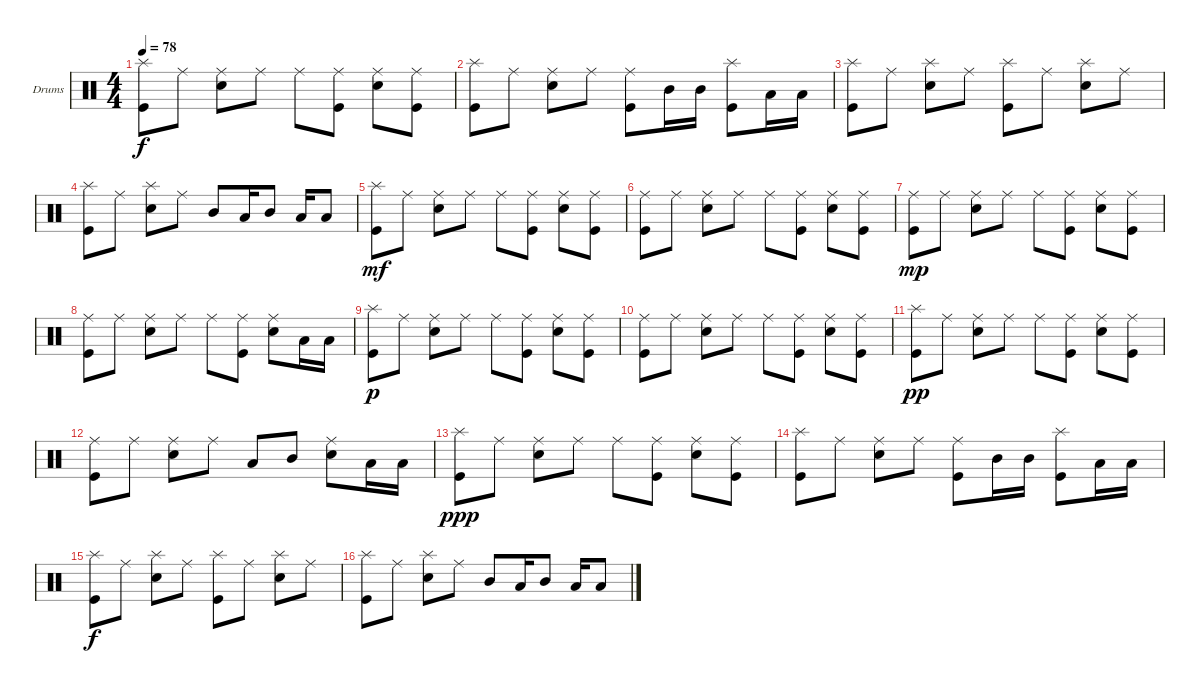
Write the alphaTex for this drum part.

\bracketExtendMode groupsimilarinstruments
\firstSystemTrackNameOrientation horizontal
\otherSystemsTrackNameOrientation horizontal
\track ("Drumkit" "Drums") {instrument percussion}
\staff {score}
\articulation defaults
\ts (4 4)
\tempo 78
\clef neutral
\ks c
("Splash (hit)" "Kick (hit)").8{dy f} "Ride (middle)".8 ("Ride (middle)" "Snare (hit) 2").8 "Ride (middle)".8 "Ride (middle)".8 ("Ride (middle)" "Kick (hit)").8 ("Ride (middle)" "Snare (hit) 2").8 ("Ride (middle)" "Kick (hit)").8 |
("Splash (hit)" "Kick (hit)").8 "Ride (middle)".8 ("Ride (middle)" "Snare (hit) 2").8 "Ride (middle)".8 ("Ride (middle)" "Kick (hit)").8 "Mid Tom (hit)".16 "Mid Tom (hit)".16 ("Splash (hit)" "Kick (hit)").8 "Low Tom (hit)".16 "Low Tom (hit)".16 |
("Splash (hit)" "Kick (hit)").8 "Ride (middle)".8 ("Splash (hit)" "Snare (hit) 2").8 "Ride (middle)".8 ("Splash (hit)" "Kick (hit)").8 "Ride (middle)".8 ("Splash (hit)" "Snare (hit) 2").8 "Ride (middle)".8 |
("Splash (hit)" "Kick (hit)").8 "Ride (middle)".8 ("Splash (hit)" "Snare (hit) 2").8 "Ride (middle)".8 "Mid Tom (hit)".8 "Low Tom (hit)".16 "Mid Tom (hit)".8 "Low Tom (hit)".16 "Low Tom (hit)".8 |
("Splash (hit)" "Kick (hit)").8{dy mf} "Ride (middle)".8 ("Ride (middle)" "Snare (hit) 2").8 "Ride (middle)".8 "Ride (middle)".8 ("Ride (middle)" "Kick (hit)").8 ("Ride (middle)" "Snare (hit) 2").8 ("Ride (middle)" "Kick (hit)").8 |
("Ride (middle)" "Kick (hit)").8 "Ride (middle)".8 ("Ride (middle)" "Snare (hit) 2").8 "Ride (middle)".8 "Ride (middle)".8 ("Ride (middle)" "Kick (hit)").8 ("Ride (middle)" "Snare (hit) 2").8 ("Ride (middle)" "Kick (hit)").8 |
("Ride (middle)" "Kick (hit)").8{dy mp} "Ride (middle)".8 ("Ride (middle)" "Snare (hit) 2").8 "Ride (middle)".8 "Ride (middle)".8 ("Ride (middle)" "Kick (hit)").8 ("Ride (middle)" "Snare (hit) 2").8 ("Ride (middle)" "Kick (hit)").8 |
("Ride (middle)" "Kick (hit)").8 "Ride (middle)".8 ("Ride (middle)" "Snare (hit) 2").8 "Ride (middle)".8 "Ride (middle)".8 ("Ride (middle)" "Kick (hit)").8 ("Ride (middle)" "Snare (hit) 2").8 "Low Tom (hit)".16 "Low Tom (hit)".16 |
("Splash (hit)" "Kick (hit)").8{dy p} "Ride (middle)".8 ("Ride (middle)" "Snare (hit) 2").8 "Ride (middle)".8 "Ride (middle)".8 ("Ride (middle)" "Kick (hit)").8 ("Ride (middle)" "Snare (hit) 2").8 ("Ride (middle)" "Kick (hit)").8 |
("Ride (middle)" "Kick (hit)").8 "Ride (middle)".8 ("Ride (middle)" "Snare (hit) 2").8 "Ride (middle)".8 "Ride (middle)".8 ("Ride (middle)" "Kick (hit)").8 ("Ride (middle)" "Snare (hit) 2").8 ("Ride (middle)" "Kick (hit)").8 |
("Splash (hit)" "Kick (hit)").8{dy pp} "Ride (middle)".8 ("Ride (middle)" "Snare (hit) 2").8 "Ride (middle)".8 "Ride (middle)".8 ("Ride (middle)" "Kick (hit)").8 ("Ride (middle)" "Snare (hit) 2").8 ("Ride (middle)" "Kick (hit)").8 |
("Ride (middle)" "Kick (hit)").8 "Ride (middle)".8 ("Ride (middle)" "Snare (hit) 2").8 "Ride (middle)".8 "Low Tom (hit)".8 "Mid Tom (hit)".8 ("Ride (middle)" "Snare (hit) 2").8 "Low Tom (hit)".16 "Low Tom (hit)".16 |
("Splash (hit)" "Kick (hit)").8{dy ppp} "Ride (middle)".8 ("Ride (middle)" "Snare (hit) 2").8 "Ride (middle)".8 "Ride (middle)".8 ("Ride (middle)" "Kick (hit)").8 ("Ride (middle)" "Snare (hit) 2").8 ("Ride (middle)" "Kick (hit)").8 |
("Splash (hit)" "Kick (hit)").8 "Ride (middle)".8 ("Ride (middle)" "Snare (hit) 2").8 "Ride (middle)".8 ("Ride (middle)" "Kick (hit)").8 "Mid Tom (hit)".16 "Mid Tom (hit)".16 ("Splash (hit)" "Kick (hit)").8 "Low Tom (hit)".16 "Low Tom (hit)".16 |
("Splash (hit)" "Kick (hit)").8{dy f} "Ride (middle)".8 ("Splash (hit)" "Snare (hit) 2").8 "Ride (middle)".8 ("Splash (hit)" "Kick (hit)").8 "Ride (middle)".8 ("Splash (hit)" "Snare (hit) 2").8 "Ride (middle)".8 |
("Splash (hit)" "Kick (hit)").8 "Ride (middle)".8 ("Splash (hit)" "Snare (hit) 2").8 "Ride (middle)".8 "Mid Tom (hit)".8 "Low Tom (hit)".16 "Mid Tom (hit)".8 "Low Tom (hit)".16 "Low Tom (hit)".8
